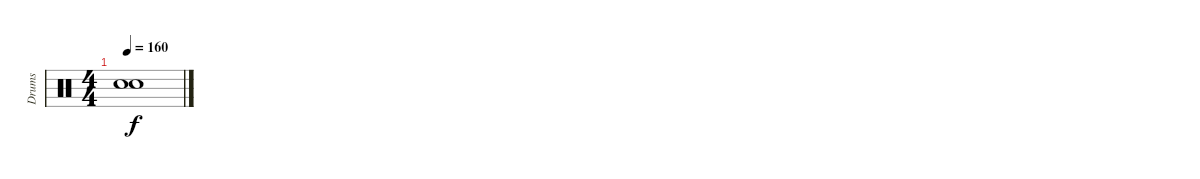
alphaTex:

\track ("Drums" "Drums") {instrument percussion}
\staff {score}
\articulation defaults
\ts (4 4)
\tempo 160
\clef neutral
\ks c
("Snare (hit)"{t} "Snare (hit)"{t}).1{dy f}
